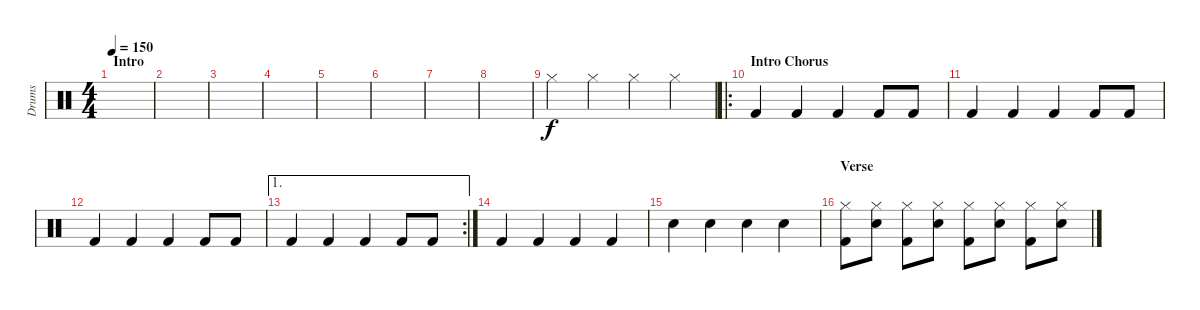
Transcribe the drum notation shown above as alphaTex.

\track ("Drums" "Drums") {instrument percussion}
\staff {score}
\articulation defaults
\ts (4 4)
\section ("" "Intro")
\tempo 150
\clef neutral
\ks c
|
|
|
|
|
|
|
|
"Hi-Hat (closed)".4 "Hi-Hat (closed)".4 "Hi-Hat (closed)".4 "Hi-Hat (closed)".4 |
\ro
\section ("" "Intro Chorus")
"Kick (hit) 2".4 "Kick (hit) 2".4 "Kick (hit) 2".4 "Kick (hit) 2".8 "Kick (hit) 2".8 |
"Kick (hit) 2".4 "Kick (hit) 2".4 "Kick (hit) 2".4 "Kick (hit) 2".8 "Kick (hit) 2".8 |
"Kick (hit) 2".4 "Kick (hit) 2".4 "Kick (hit) 2".4 "Kick (hit) 2".8 "Kick (hit) 2".8 |
\ae 1
\rc 2 "Kick (hit) 2".4 "Kick (hit) 2".4 "Kick (hit) 2".4 "Kick (hit) 2".8 "Kick (hit) 2".8
|
"Kick (hit) 2".4 "Kick (hit) 2".4 "Kick (hit) 2".4 "Kick (hit) 2".4 |
"Snare (hit) 2".4 "Snare (hit) 2".4 "Snare (hit) 2".4 "Snare (hit) 2".4 |
\section ("" "Verse")
("Hi-Hat (closed)" "Kick (hit) 2").8 ("Hi-Hat (closed)" "Snare (hit) 2").8 ("Hi-Hat (closed)" "Kick (hit) 2").8 ("Hi-Hat (closed)" "Snare (hit) 2").8 ("Hi-Hat (closed)" "Kick (hit) 2").8 ("Hi-Hat (closed)" "Snare (hit) 2").8 ("Hi-Hat (closed)" "Kick (hit) 2").8 ("Hi-Hat (closed)" "Snare (hit) 2").8
